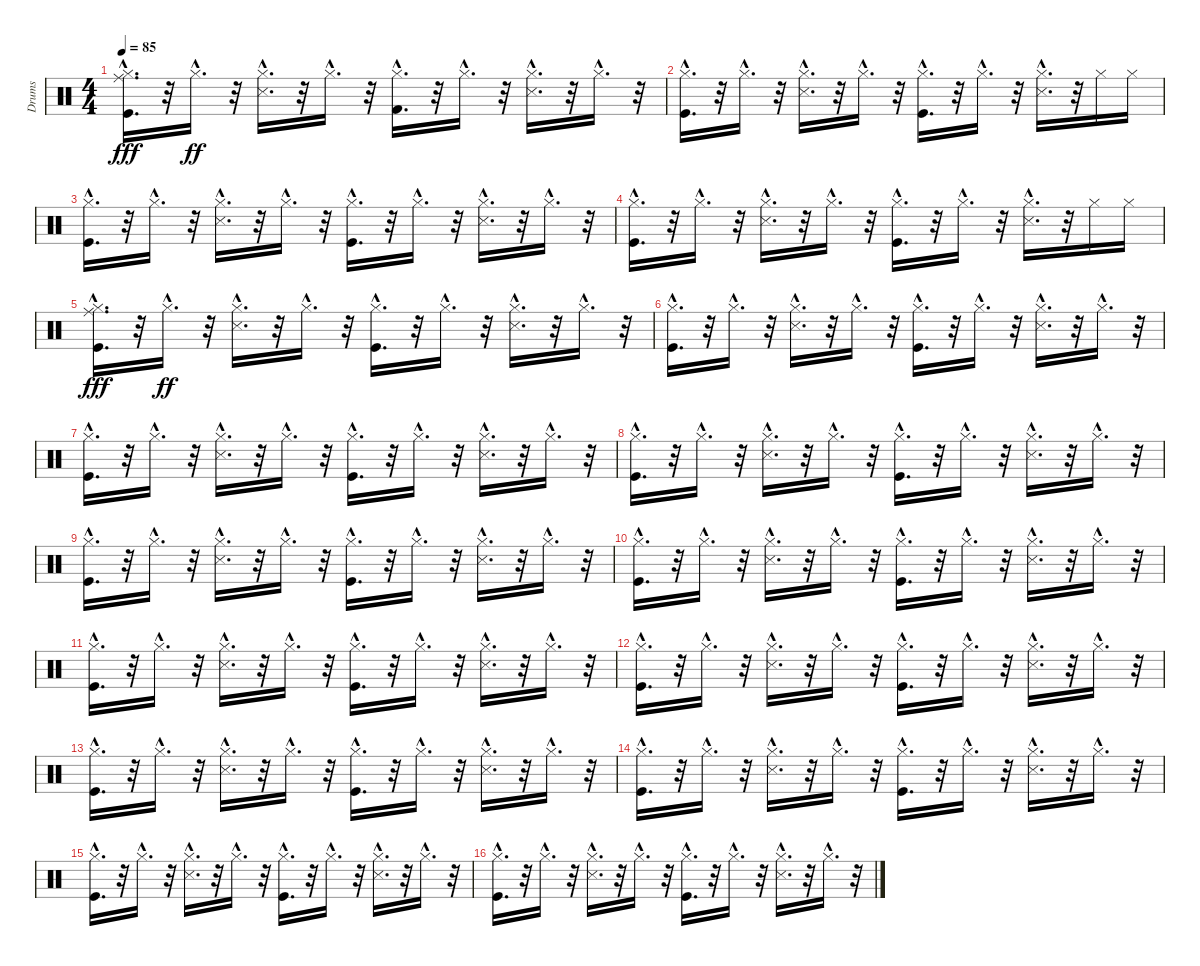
\track ("Drums" "Drums") {instrument percussion}
\staff {score}
\articulation defaults
\ts (4 4)
\tempo 85
\clef neutral
\ks c
("Kick (hit)"{hac} "Hi-Hat (closed)"{hac} "Ride (middle)"{hac}).16{d dy fff} r.32 "Hi-Hat (closed)"{hac}.16{d dy ff} r.32 ("Snare (side stick) 3"{hac} "Hi-Hat (closed)"{hac}).16{d} r.32 "Hi-Hat (closed)"{hac}.16{d} r.32 ("Kick (hit) 2"{hac} "Hi-Hat (closed)"{hac}).16{d} r.32 "Hi-Hat (closed)"{hac}.16{d} r.32 ("Snare (side stick) 3"{hac} "Hi-Hat (closed)"{hac}).16{d} r.32 "Hi-Hat (closed)"{hac}.16{d} r.32 |
("Kick (hit)"{hac} "Hi-Hat (closed)"{hac}).16{d} r.32 "Hi-Hat (closed)"{hac}.16{d} r.32 ("Snare (side stick) 3"{hac} "Hi-Hat (closed)"{hac}).16{d} r.32 "Hi-Hat (closed)"{hac}.16{d} r.32 ("Kick (hit)"{hac} "Hi-Hat (closed)"{hac}).16{d} r.32 "Hi-Hat (closed)"{hac}.16{d} r.32 ("Snare (side stick) 3"{hac} "Hi-Hat (closed)"{hac}).16{d} r.32 "Hi-Hat (closed)".16 "Hi-Hat (closed)".16 |
("Hi-Hat (closed)"{hac} "Kick (hit)"{hac}).16{d} r.32 "Hi-Hat (closed)"{hac}.16{d} r.32 ("Hi-Hat (closed)"{hac} "Snare (side stick) 3"{hac}).16{d} r.32 "Hi-Hat (closed)"{hac}.16{d} r.32 ("Hi-Hat (closed)"{hac} "Kick (hit)"{hac}).16{d} r.32 "Hi-Hat (closed)"{hac}.16{d} r.32 ("Hi-Hat (closed)"{hac} "Snare (side stick) 3"{hac}).16{d} r.32 "Hi-Hat (closed)"{hac}.16{d} r.32 |
("Kick (hit)"{hac} "Hi-Hat (closed)"{hac}).16{d} r.32 "Hi-Hat (closed)"{hac}.16{d} r.32 ("Snare (side stick) 3"{hac} "Hi-Hat (closed)"{hac}).16{d} r.32 "Hi-Hat (closed)"{hac}.16{d} r.32 ("Kick (hit)"{hac} "Hi-Hat (closed)"{hac}).16{d} r.32 "Hi-Hat (closed)"{hac}.16{d} r.32 ("Snare (side stick) 3"{hac} "Hi-Hat (closed)"{hac}).16{d} r.32 "Hi-Hat (closed)".16 "Hi-Hat (closed)".16 |
("Hi-Hat (closed)"{hac} "Kick (hit)"{hac} "Ride (middle)"{hac}).16{d dy fff} r.32 "Hi-Hat (closed)"{hac}.16{d dy ff} r.32 ("Hi-Hat (closed)"{hac} "Snare (side stick) 3"{hac}).16{d} r.32 "Hi-Hat (closed)"{hac}.16{d} r.32 ("Hi-Hat (closed)"{hac} "Kick (hit)"{hac}).16{d} r.32 "Hi-Hat (closed)"{hac}.16{d} r.32 ("Hi-Hat (closed)"{hac} "Snare (side stick) 3"{hac}).16{d} r.32 "Hi-Hat (closed)"{hac}.16{d} r.32 |
("Kick (hit)"{hac} "Hi-Hat (closed)"{hac}).16{d} r.32 "Hi-Hat (closed)"{hac}.16{d} r.32 ("Snare (side stick) 3"{hac} "Hi-Hat (closed)"{hac}).16{d} r.32 "Hi-Hat (closed)"{hac}.16{d} r.32 ("Kick (hit)"{hac} "Hi-Hat (closed)"{hac}).16{d} r.32 "Hi-Hat (closed)"{hac}.16{d} r.32 ("Snare (side stick) 3"{hac} "Hi-Hat (closed)"{hac}).16{d} r.32 "Hi-Hat (closed)"{hac}.16{d} r.32 |
("Kick (hit)"{hac} "Hi-Hat (closed)"{hac}).16{d} r.32 "Hi-Hat (closed)"{hac}.16{d} r.32 ("Snare (side stick) 3"{hac} "Hi-Hat (closed)"{hac}).16{d} r.32 "Hi-Hat (closed)"{hac}.16{d} r.32 ("Kick (hit)"{hac} "Hi-Hat (closed)"{hac}).16{d} r.32 "Hi-Hat (closed)"{hac}.16{d} r.32 ("Snare (side stick) 3"{hac} "Hi-Hat (closed)"{hac}).16{d} r.32 "Hi-Hat (closed)"{hac}.16{d} r.32 |
("Hi-Hat (closed)"{hac} "Kick (hit)"{hac}).16{d} r.32 "Hi-Hat (closed)"{hac}.16{d} r.32 ("Hi-Hat (closed)"{hac} "Snare (side stick) 3"{hac}).16{d} r.32 "Hi-Hat (closed)"{hac}.16{d} r.32 ("Hi-Hat (closed)"{hac} "Kick (hit)"{hac}).16{d} r.32 "Hi-Hat (closed)"{hac}.16{d} r.32 ("Hi-Hat (closed)"{hac} "Snare (side stick) 3"{hac}).16{d} r.32 "Hi-Hat (closed)"{hac}.16{d} r.32 |
("Hi-Hat (closed)"{hac} "Kick (hit)"{hac}).16{d} r.32 "Hi-Hat (closed)"{hac}.16{d} r.32 ("Hi-Hat (closed)"{hac} "Snare (side stick) 3"{hac}).16{d} r.32 "Hi-Hat (closed)"{hac}.16{d} r.32 ("Hi-Hat (closed)"{hac} "Kick (hit)"{hac}).16{d} r.32 "Hi-Hat (closed)"{hac}.16{d} r.32 ("Hi-Hat (closed)"{hac} "Snare (side stick) 3"{hac}).16{d} r.32 "Hi-Hat (closed)"{hac}.16{d} r.32 |
("Hi-Hat (closed)"{hac} "Kick (hit)"{hac}).16{d} r.32 "Hi-Hat (closed)"{hac}.16{d} r.32 ("Hi-Hat (closed)"{hac} "Snare (side stick) 3"{hac}).16{d} r.32 "Hi-Hat (closed)"{hac}.16{d} r.32 ("Hi-Hat (closed)"{hac} "Kick (hit)"{hac}).16{d} r.32 "Hi-Hat (closed)"{hac}.16{d} r.32 ("Hi-Hat (closed)"{hac} "Snare (side stick) 3"{hac}).16{d} r.32 "Hi-Hat (closed)"{hac}.16{d} r.32 |
("Hi-Hat (closed)"{hac} "Kick (hit)"{hac}).16{d} r.32 "Hi-Hat (closed)"{hac}.16{d} r.32 ("Hi-Hat (closed)"{hac} "Snare (side stick) 3"{hac}).16{d} r.32 "Hi-Hat (closed)"{hac}.16{d} r.32 ("Hi-Hat (closed)"{hac} "Kick (hit)"{hac}).16{d} r.32 "Hi-Hat (closed)"{hac}.16{d} r.32 ("Hi-Hat (closed)"{hac} "Snare (side stick) 3"{hac}).16{d} r.32 "Hi-Hat (closed)"{hac}.16{d} r.32 |
("Hi-Hat (closed)"{hac} "Kick (hit)"{hac}).16{d} r.32 "Hi-Hat (closed)"{hac}.16{d} r.32 ("Hi-Hat (closed)"{hac} "Snare (side stick) 3"{hac}).16{d} r.32 "Hi-Hat (closed)"{hac}.16{d} r.32 ("Hi-Hat (closed)"{hac} "Kick (hit)"{hac}).16{d} r.32 "Hi-Hat (closed)"{hac}.16{d} r.32 ("Hi-Hat (closed)"{hac} "Snare (side stick) 3"{hac}).16{d} r.32 "Hi-Hat (closed)"{hac}.16{d} r.32 |
("Hi-Hat (closed)"{hac} "Kick (hit)"{hac}).16{d} r.32 "Hi-Hat (closed)"{hac}.16{d} r.32 ("Hi-Hat (closed)"{hac} "Snare (side stick) 3"{hac}).16{d} r.32 "Hi-Hat (closed)"{hac}.16{d} r.32 ("Hi-Hat (closed)"{hac} "Kick (hit)"{hac}).16{d} r.32 "Hi-Hat (closed)"{hac}.16{d} r.32 ("Hi-Hat (closed)"{hac} "Snare (side stick) 3"{hac}).16{d} r.32 "Hi-Hat (closed)"{hac}.16{d} r.32 |
("Hi-Hat (closed)"{hac} "Kick (hit)"{hac}).16{d} r.32 "Hi-Hat (closed)"{hac}.16{d} r.32 ("Hi-Hat (closed)"{hac} "Snare (side stick) 3"{hac}).16{d} r.32 "Hi-Hat (closed)"{hac}.16{d} r.32 ("Hi-Hat (closed)"{hac} "Kick (hit)"{hac}).16{d} r.32 "Hi-Hat (closed)"{hac}.16{d} r.32 ("Hi-Hat (closed)"{hac} "Snare (side stick) 3"{hac}).16{d} r.32 "Hi-Hat (closed)"{hac}.16{d} r.32 |
("Hi-Hat (closed)"{hac} "Kick (hit)"{hac}).16{d} r.32 "Hi-Hat (closed)"{hac}.16{d} r.32 ("Hi-Hat (closed)"{hac} "Snare (side stick) 3"{hac}).16{d} r.32 "Hi-Hat (closed)"{hac}.16{d} r.32 ("Hi-Hat (closed)"{hac} "Kick (hit)"{hac}).16{d} r.32 "Hi-Hat (closed)"{hac}.16{d} r.32 ("Hi-Hat (closed)"{hac} "Snare (side stick) 3"{hac}).16{d} r.32 "Hi-Hat (closed)"{hac}.16{d} r.32 |
("Hi-Hat (closed)"{hac} "Kick (hit)"{hac}).16{d} r.32 "Hi-Hat (closed)"{hac}.16{d} r.32 ("Hi-Hat (closed)"{hac} "Snare (side stick) 3"{hac}).16{d} r.32 "Hi-Hat (closed)"{hac}.16{d} r.32 ("Hi-Hat (closed)"{hac} "Kick (hit)"{hac}).16{d} r.32 "Hi-Hat (closed)"{hac}.16{d} r.32 ("Hi-Hat (closed)"{hac} "Snare (side stick) 3"{hac}).16{d} r.32 "Hi-Hat (closed)"{hac}.16{d} r.32
